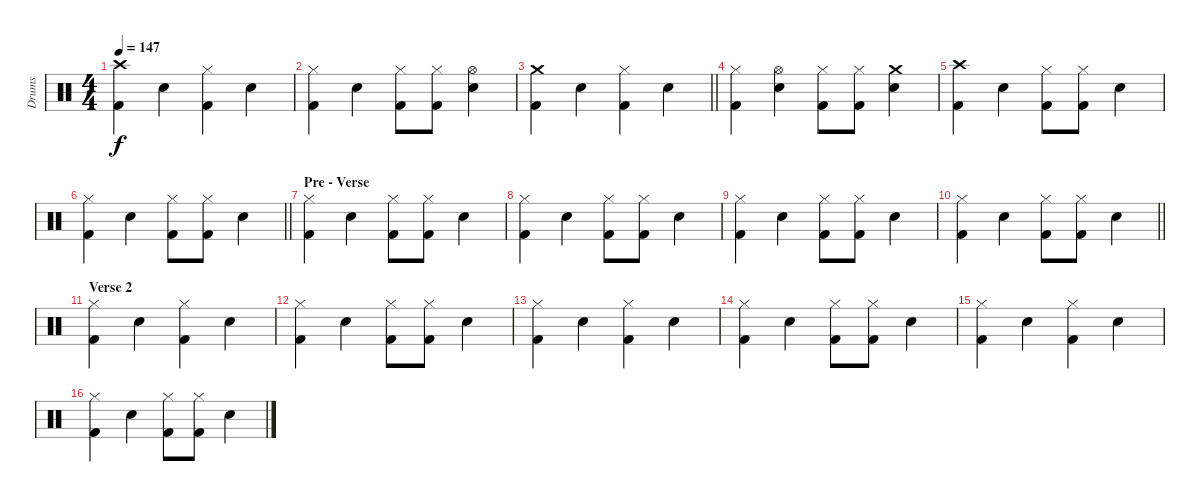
\track ("Drums" "Drums") {instrument percussion}
\staff {score}
\articulation defaults
\ts (4 4)
\tempo 147
\clef neutral
\ks c
("Crash high (hit)" "Kick (hit) 2").4{dy f} "Electric Snare (hit)".4 ("Hi-Hat (closed)" "Kick (hit) 2").4 "Electric Snare (hit)".4 |
("Hi-Hat (closed)" "Kick (hit) 2").4 "Electric Snare (hit)".4 ("Hi-Hat (closed)" "Kick (hit) 2").8 ("Hi-Hat (closed)" "Kick (hit) 2").8 ("Hi-Hat (open)" "Electric Snare (hit)").4 |
\barLineRight lightlight
("Crash medium (hit)" "Kick (hit) 2").4 "Electric Snare (hit)".4 ("Hi-Hat (closed)" "Kick (hit) 2").4 "Electric Snare (hit)".4 |
\section ("" "")
("Hi-Hat (closed)" "Kick (hit) 2").4 ("Hi-Hat (open)" "Electric Snare (hit)").4 ("Hi-Hat (closed)" "Kick (hit) 2").8 ("Hi-Hat (closed)" "Kick (hit) 2").8 ("Crash medium (hit)" "Electric Snare (hit)").4 |
("Crash high (hit)" "Kick (hit) 2").4 "Electric Snare (hit)".4 ("Hi-Hat (closed)" "Kick (hit) 2").8 ("Hi-Hat (closed)" "Kick (hit) 2").8 "Electric Snare (hit)".4 |
\barLineRight lightlight
("Hi-Hat (closed)" "Kick (hit) 2").4 "Electric Snare (hit)".4 ("Hi-Hat (closed)" "Kick (hit) 2").8 ("Hi-Hat (closed)" "Kick (hit) 2").8 "Electric Snare (hit)".4 |
\section ("" "Pre - Verse")
("Hi-Hat (closed)" "Kick (hit) 2").4 "Electric Snare (hit)".4 ("Hi-Hat (closed)" "Kick (hit) 2").8 ("Hi-Hat (closed)" "Kick (hit) 2").8 "Electric Snare (hit)".4 |
("Hi-Hat (closed)" "Kick (hit) 2").4 "Electric Snare (hit)".4 ("Hi-Hat (closed)" "Kick (hit) 2").8 ("Hi-Hat (closed)" "Kick (hit) 2").8 "Electric Snare (hit)".4 |
("Hi-Hat (closed)" "Kick (hit) 2").4 "Electric Snare (hit)".4 ("Hi-Hat (closed)" "Kick (hit) 2").8 ("Hi-Hat (closed)" "Kick (hit) 2").8 "Electric Snare (hit)".4 |
\barLineRight lightlight
("Hi-Hat (closed)" "Kick (hit) 2").4 "Electric Snare (hit)".4 ("Hi-Hat (closed)" "Kick (hit) 2").8 ("Hi-Hat (closed)" "Kick (hit) 2").8 "Electric Snare (hit)".4 |
\section ("" "Verse 2")
("Hi-Hat (closed)" "Kick (hit) 2").4 "Electric Snare (hit)".4 ("Hi-Hat (closed)" "Kick (hit) 2").4 "Electric Snare (hit)".4 |
("Hi-Hat (closed)" "Kick (hit) 2").4 "Electric Snare (hit)".4 ("Hi-Hat (closed)" "Kick (hit) 2").8 ("Hi-Hat (closed)" "Kick (hit) 2").8 "Electric Snare (hit)".4 |
("Hi-Hat (closed)" "Kick (hit) 2").4 "Electric Snare (hit)".4 ("Hi-Hat (closed)" "Kick (hit) 2").4 "Electric Snare (hit)".4 |
("Hi-Hat (closed)" "Kick (hit) 2").4 "Electric Snare (hit)".4 ("Hi-Hat (closed)" "Kick (hit) 2").8 ("Hi-Hat (closed)" "Kick (hit) 2").8 "Electric Snare (hit)".4 |
("Hi-Hat (closed)" "Kick (hit) 2").4 "Electric Snare (hit)".4 ("Hi-Hat (closed)" "Kick (hit) 2").4 "Electric Snare (hit)".4 |
("Hi-Hat (closed)" "Kick (hit) 2").4 "Electric Snare (hit)".4 ("Hi-Hat (closed)" "Kick (hit) 2").8 ("Hi-Hat (closed)" "Kick (hit) 2").8 "Electric Snare (hit)".4
